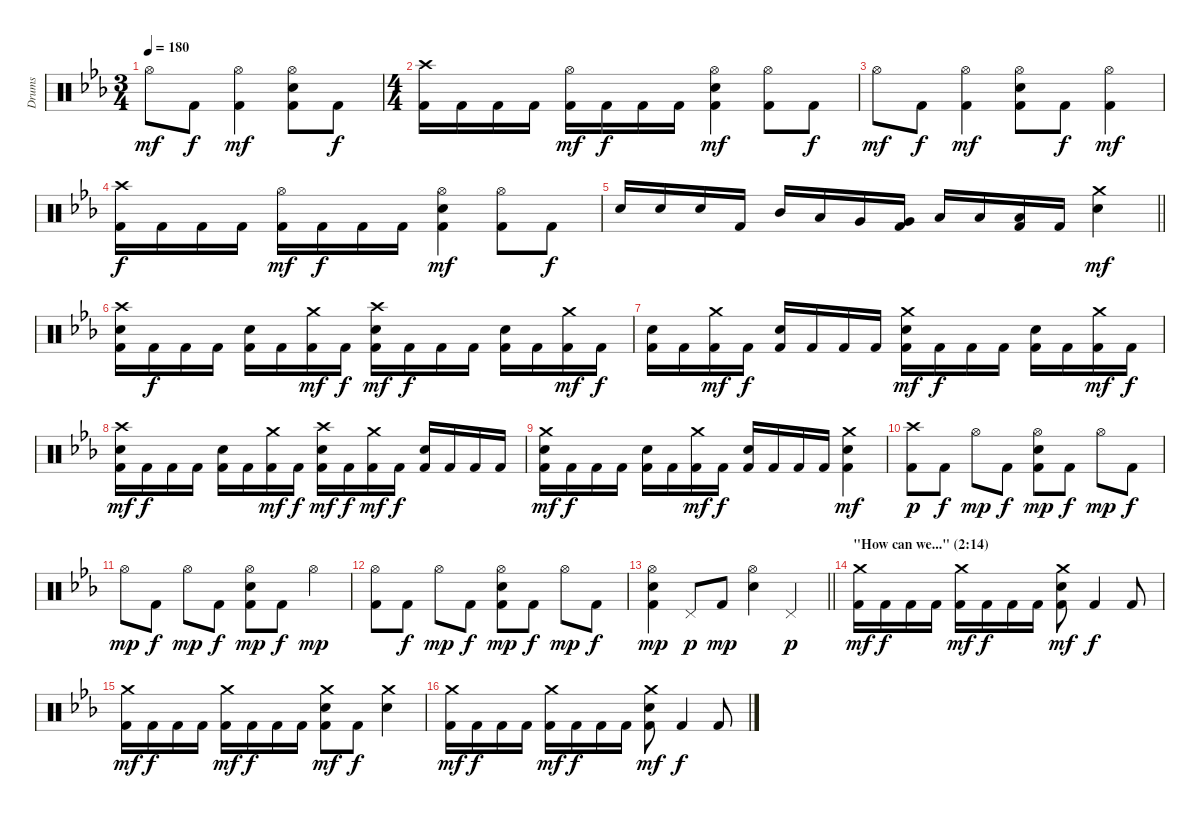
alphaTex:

\track ("Drums" "Drums") {instrument percussion}
\staff {score}
\articulation defaults
\ts (3 4)
\tempo 180
\clef neutral
\ks eb "Hi-Hat (open)".8{dy mf} "Kick (hit) 2".8{dy f}
("Hi-Hat (open)" "Kick (hit) 2").4{dy mf} ("Hi-Hat (open)" "Electric Snare (hit)" "Kick (hit) 2").8 "Kick (hit) 2".8{dy f} |
\ts (4 4)
("Crash high (hit)" "Kick (hit) 2").16 "Kick (hit) 2".16 "Kick (hit) 2".16 "Kick (hit) 2".16 ("Hi-Hat (open)" "Kick (hit) 2").16{dy mf} "Kick (hit) 2".16{dy f} "Kick (hit) 2".16 "Kick (hit) 2".16 ("Hi-Hat (open)" "Electric Snare (hit)" "Kick (hit) 2").4{dy mf} ("Hi-Hat (open)" "Kick (hit) 2").8 "Kick (hit) 2".8{dy f} |
"Hi-Hat (open)".8{dy mf} "Kick (hit) 2".8{dy f} ("Hi-Hat (open)" "Kick (hit) 2").4{dy mf} ("Hi-Hat (open)" "Electric Snare (hit)" "Kick (hit) 2").8 "Kick (hit) 2".8{dy f} ("Hi-Hat (open)" "Kick (hit) 2").4{dy mf} |
("Crash high (hit)" "Kick (hit) 2").16{dy f} "Kick (hit) 2".16 "Kick (hit) 2".16 "Kick (hit) 2".16 ("Hi-Hat (open)" "Kick (hit) 2").16{dy mf} "Kick (hit) 2".16{dy f} "Kick (hit) 2".16 "Kick (hit) 2".16 ("Hi-Hat (open)" "Electric Snare (hit)" "Kick (hit) 2").4{dy mf} ("Hi-Hat (open)" "Kick (hit) 2").8 "Kick (hit) 2".8{dy f} |
\barLineRight lightlight "Electric Snare (hit)".16 "Electric Snare (hit)".16 "Electric Snare (hit)".16 "Kick (hit) 2".16 "Mid Tom (hit)".16 "Low Tom (hit)".16 "Very Low Tom (hit)".16
("Very Low Tom (hit)" "Kick (hit) 2").16 "Low Floor Tom (hit)".16 "Low Floor Tom (hit)".16 ("Low Floor Tom (hit)" "Kick (hit) 2").16 "Kick (hit) 2".16 ("Crash medium (hit)" "Electric Snare (hit)").4{dy mf} |
("Crash high (hit)" "Electric Snare (hit)" "Kick (hit) 2").16 "Kick (hit) 2".16{dy f} "Kick (hit) 2".16 "Kick (hit) 2".16 ("Electric Snare (hit)" "Kick (hit) 2").16 "Kick (hit) 2".16 ("Crash medium (hit)" "Kick (hit) 2").16{dy mf} "Kick (hit) 2".16{dy f} ("Crash high (hit)" "Electric Snare (hit)" "Kick (hit) 2").16{dy mf} "Kick (hit) 2".16{dy f} "Kick (hit) 2".16 "Kick (hit) 2".16 ("Electric Snare (hit)" "Kick (hit) 2").16 "Kick (hit) 2".16 ("Crash medium (hit)" "Kick (hit) 2").16{dy mf} "Kick (hit) 2".16{dy f} |
("Electric Snare (hit)" "Kick (hit) 2").16 "Kick (hit) 2".16 ("Crash medium (hit)" "Kick (hit) 2").16{dy mf} "Kick (hit) 2".16{dy f} ("Electric Snare (hit)" "Kick (hit) 2").16 "Kick (hit) 2".16 "Kick (hit) 2".16 "Kick (hit) 2".16 ("Crash medium (hit)" "Electric Snare (hit)" "Kick (hit) 2").16{dy mf} "Kick (hit) 2".16{dy f} "Kick (hit) 2".16 "Kick (hit) 2".16 ("Electric Snare (hit)" "Kick (hit) 2").16 "Kick (hit) 2".16 ("Crash medium (hit)" "Kick (hit) 2").16{dy mf} "Kick (hit) 2".16{dy f} |
("Crash high (hit)" "Electric Snare (hit)" "Kick (hit) 2").16{dy mf} "Kick (hit) 2".16{dy f} "Kick (hit) 2".16 "Kick (hit) 2".16 ("Electric Snare (hit)" "Kick (hit) 2").16 "Kick (hit) 2".16 ("Crash medium (hit)" "Kick (hit) 2").16{dy mf} "Kick (hit) 2".16{dy f} ("Crash high (hit)" "Electric Snare (hit)" "Kick (hit) 2").16{dy mf} "Kick (hit) 2".16{dy f} ("Crash medium (hit)" "Kick (hit) 2").16{dy mf} "Kick (hit) 2".16{dy f} ("Electric Snare (hit)" "Kick (hit) 2").16 "Kick (hit) 2".16 "Kick (hit) 2".16 "Kick (hit) 2".16 |
("Crash medium (hit)" "Electric Snare (hit)" "Kick (hit) 2").16{dy mf} "Kick (hit) 2".16{dy f} "Kick (hit) 2".16 "Kick (hit) 2".16 ("Electric Snare (hit)" "Kick (hit) 2").16 "Kick (hit) 2".16 ("Crash medium (hit)" "Kick (hit) 2").16{dy mf} "Kick (hit) 2".16{dy f} ("Electric Snare (hit)" "Kick (hit) 2").16 "Kick (hit) 2".16 "Kick (hit) 2".16 "Kick (hit) 2".16 ("Crash medium (hit)" "Electric Snare (hit)" "Kick (hit) 2").4{dy mf} |
("Crash high (hit)" "Kick (hit) 2").8{dy p} "Kick (hit) 2".8{dy f} "Hi-Hat (open)".8{dy mp} "Kick (hit) 2".8{dy f} ("Hi-Hat (open)" "Electric Snare (hit)" "Kick (hit) 2").8{dy mp} "Kick (hit) 2".8{dy f} "Hi-Hat (open)".8{dy mp} "Kick (hit) 2".8{dy f} |
"Hi-Hat (open)".8{dy mp} "Kick (hit) 2".8{dy f} "Hi-Hat (open)".8{dy mp} "Kick (hit) 2".8{dy f} ("Hi-Hat (open)" "Electric Snare (hit)" "Kick (hit) 2").8{dy mp} "Kick (hit) 2".8{dy f} "Hi-Hat (open)".4{dy mp} |
("Hi-Hat (open)" "Kick (hit) 2").8 "Kick (hit) 2".8{dy f} "Hi-Hat (open)".8{dy mp} "Kick (hit) 2".8{dy f} ("Hi-Hat (open)" "Electric Snare (hit)" "Kick (hit) 2").8{dy mp} "Kick (hit) 2".8{dy f} "Hi-Hat (open)".8{dy mp} "Kick (hit) 2".8{dy f} |
\barLineRight lightlight
("Hi-Hat (open)" "Electric Snare (hit)" "Kick (hit) 2").4{dy mp} "Pedal Hi-Hat (hit)".8{dy p} "Kick (hit) 2".8{dy mp} ("Hi-Hat (open)" "Electric Snare (hit)").4 "Pedal Hi-Hat (hit)".4{dy p} |
\section ("" "\"How can we...\" (2:14)")
("Crash medium (hit)" "Kick (hit) 2").16{dy mf} "Kick (hit) 2".16{dy f} "Kick (hit) 2".16 "Kick (hit) 2".16 ("Crash medium (hit)" "Kick (hit) 2").16{dy mf} "Kick (hit) 2".16{dy f} "Kick (hit) 2".16 "Kick (hit) 2".16 ("Crash medium (hit)" "Electric Snare (hit)" "Kick (hit) 2").8{dy mf} "Kick (hit) 2".4{dy f} "Kick (hit) 2".8 |
("Crash medium (hit)" "Kick (hit) 2").16{dy mf} "Kick (hit) 2".16{dy f} "Kick (hit) 2".16 "Kick (hit) 2".16 ("Crash medium (hit)" "Kick (hit) 2").16{dy mf} "Kick (hit) 2".16{dy f} "Kick (hit) 2".16 "Kick (hit) 2".16 ("Crash medium (hit)" "Electric Snare (hit)" "Kick (hit) 2").8{dy mf} "Kick (hit) 2".8{dy f} ("Crash medium (hit)" "Electric Snare (hit)").4 |
("Crash medium (hit)" "Kick (hit) 2").16{dy mf} "Kick (hit) 2".16{dy f} "Kick (hit) 2".16 "Kick (hit) 2".16 ("Crash medium (hit)" "Kick (hit) 2").16{dy mf} "Kick (hit) 2".16{dy f} "Kick (hit) 2".16 "Kick (hit) 2".16 ("Crash medium (hit)" "Electric Snare (hit)" "Kick (hit) 2").8{dy mf} "Kick (hit) 2".4{dy f} "Kick (hit) 2".8
